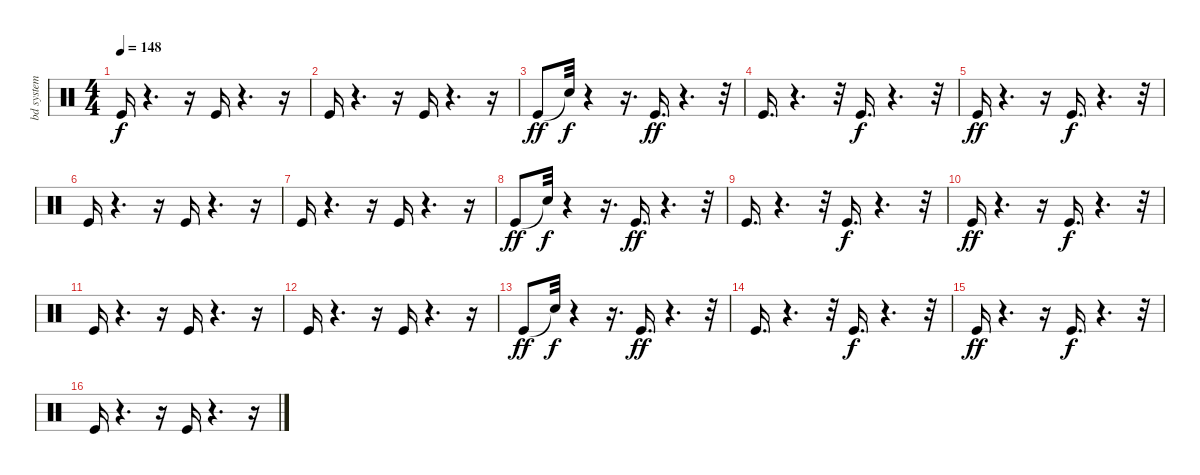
\track ("bd system kits      " "bd system ") {instrument percussion}
\staff {score}
\articulation defaults
\ts (4 4)
\tempo 148
\clef neutral
\ks c "Kick (hit)".16{dy f}
r.4{d} r.16 "Kick (hit)".16 r.4{d} r.16 |
"Kick (hit)".16 r.4{d} r.16 "Kick (hit)".16 r.4{d} r.16 |
"Kick (hit)".8{dy ff} "Snare (hit)"{t}.32{dy f} r.4 r.16{d} "Kick (hit)".16{d dy ff} r.4{d} r.32 |
"Kick (hit)".16{d} r.4{d} r.32 "Kick (hit)".16{d dy f} r.4{d} r.32 |
"Kick (hit)".16{dy ff} r.4{d} r.16 "Kick (hit)".16{d dy f} r.4{d} r.32 |
"Kick (hit)".16 r.4{d} r.16 "Kick (hit)".16 r.4{d} r.16 |
"Kick (hit)".16 r.4{d} r.16 "Kick (hit)".16 r.4{d} r.16 |
"Kick (hit)".8{dy ff} "Snare (hit)"{t}.32{dy f} r.4 r.16{d} "Kick (hit)".16{d dy ff} r.4{d} r.32 |
"Kick (hit)".16{d} r.4{d} r.32 "Kick (hit)".16{d dy f} r.4{d} r.32 |
"Kick (hit)".16{dy ff} r.4{d} r.16 "Kick (hit)".16{d dy f} r.4{d} r.32 |
"Kick (hit)".16 r.4{d} r.16 "Kick (hit)".16 r.4{d} r.16 |
"Kick (hit)".16 r.4{d} r.16 "Kick (hit)".16 r.4{d} r.16 |
"Kick (hit)".8{dy ff} "Snare (hit)"{t}.32{dy f} r.4 r.16{d} "Kick (hit)".16{d dy ff} r.4{d} r.32 |
"Kick (hit)".16{d} r.4{d} r.32 "Kick (hit)".16{d dy f} r.4{d} r.32 |
"Kick (hit)".16{dy ff} r.4{d} r.16 "Kick (hit)".16{d dy f} r.4{d} r.32 |
"Kick (hit)".16 r.4{d} r.16 "Kick (hit)".16 r.4{d} r.16
